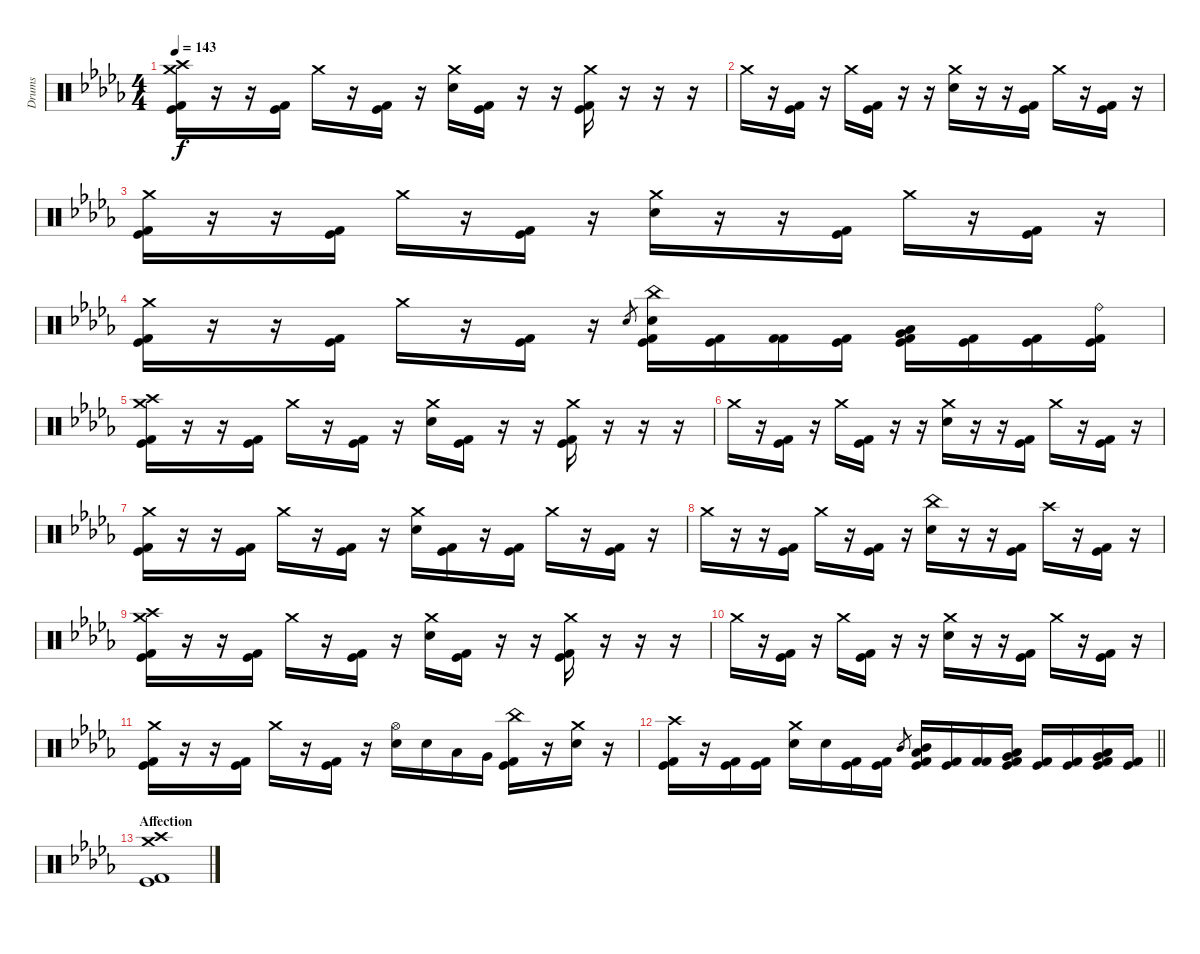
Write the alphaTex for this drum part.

\track ("Drums" "Drums") {instrument percussion}
\staff {score}
\articulation defaults
\ts (4 4)
\tempo 143
\clef neutral
\ks db
("Crash medium (hit)" "Crash high (hit)" "Kick (hit)" "Kick (hit) 2").16{dy f} r.16 r.16 ("Kick (hit)" "Kick (hit) 2").16 "Crash medium (hit)".16 r.16 ("Kick (hit)" "Kick (hit) 2").16 r.16 ("Crash medium (hit)" "Electric Snare (hit)").16 ("Kick (hit)" "Kick (hit) 2").16 r.16 r.16 ("Crash medium (hit)" "Kick (hit)" "Kick (hit) 2").16 r.16 r.16 r.16 |
"Crash medium (hit)".16 r.16 ("Kick (hit)" "Kick (hit) 2").16 r.16 "Crash medium (hit)".16 ("Kick (hit)" "Kick (hit) 2").16 r.16 r.16 ("Crash medium (hit)" "Electric Snare (hit)").16 r.16 r.16 ("Kick (hit)" "Kick (hit) 2").16 "Crash medium (hit)".16 r.16 ("Kick (hit)" "Kick (hit) 2").16 r.16 |
("Crash medium (hit)" "Kick (hit)" "Kick (hit) 2").16 r.16 r.16 ("Kick (hit)" "Kick (hit) 2").16 "Crash medium (hit)".16 r.16 ("Kick (hit)" "Kick (hit) 2").16 r.16 ("Crash medium (hit)" "Electric Snare (hit)").16 r.16 r.16 ("Kick (hit)" "Kick (hit) 2").16 "Crash medium (hit)".16 r.16 ("Kick (hit)" "Kick (hit) 2").16 r.16 |
("Crash medium (hit)" "Kick (hit)" "Kick (hit) 2").16 r.16 r.16 ("Kick (hit)" "Kick (hit) 2").16 "Crash medium (hit)".16 r.16 ("Kick (hit)" "Kick (hit) 2").16 r.16 "Electric Snare (hit)".8{gr} ("China (hit)" "Electric Snare (hit)" "Kick (hit)" "Kick (hit) 2").16 ("Kick (hit)" "Kick (hit) 2").16 ("Kick (hit) 2" "Kick (hit) 2").16 ("Kick (hit)" "Kick (hit) 2").16 ("Low Floor Tom (hit)" "Very Low Tom (hit)" "Kick (hit)" "Kick (hit) 2").16 ("Kick (hit)" "Kick (hit) 2").16 ("Kick (hit)" "Kick (hit) 2").16 ("Ride (bell)" "Kick (hit)" "Kick (hit) 2").16 |
("Crash medium (hit)" "Crash high (hit)" "Kick (hit)" "Kick (hit) 2").16 r.16 r.16 ("Kick (hit)" "Kick (hit) 2").16 "Crash medium (hit)".16 r.16 ("Kick (hit)" "Kick (hit) 2").16 r.16 ("Crash medium (hit)" "Electric Snare (hit)").16 ("Kick (hit)" "Kick (hit) 2").16 r.16 r.16 ("Crash medium (hit)" "Kick (hit)" "Kick (hit) 2").16 r.16 r.16 r.16 |
"Crash medium (hit)".16 r.16 ("Kick (hit)" "Kick (hit) 2").16 r.16 "Crash medium (hit)".16 ("Kick (hit)" "Kick (hit) 2").16 r.16 r.16 ("Crash medium (hit)" "Electric Snare (hit)").16 r.16 r.16 ("Kick (hit)" "Kick (hit) 2").16 "Crash medium (hit)".16 r.16 ("Kick (hit)" "Kick (hit) 2").16 r.16 |
("Crash medium (hit)" "Kick (hit)" "Kick (hit) 2").16 r.16 r.16 ("Kick (hit)" "Kick (hit) 2").16 "Crash medium (hit)".16 r.16 ("Kick (hit)" "Kick (hit) 2").16 r.16 ("Crash medium (hit)" "Electric Snare (hit)").16 ("Kick (hit)" "Kick (hit) 2").16 r.16 ("Kick (hit)" "Kick (hit) 2").16 "Crash medium (hit)".16 r.16 ("Kick (hit)" "Kick (hit) 2").16 r.16 |
"Crash medium (hit)".16 r.16 r.16 ("Kick (hit)" "Kick (hit) 2").16 "Crash medium (hit)".16 r.16 ("Kick (hit)" "Kick (hit) 2").16 r.16 ("China (hit)" "Electric Snare (hit)").16 r.16 r.16 ("Kick (hit)" "Kick (hit) 2").16 "Crash high (hit)".16 r.16 ("Kick (hit)" "Kick (hit) 2").16 r.16 |
("Crash medium (hit)" "Crash high (hit)" "Kick (hit)" "Kick (hit) 2").16 r.16 r.16 ("Kick (hit)" "Kick (hit) 2").16 "Crash medium (hit)".16 r.16 ("Kick (hit)" "Kick (hit) 2").16 r.16 ("Crash medium (hit)" "Electric Snare (hit)").16 ("Kick (hit)" "Kick (hit) 2").16 r.16 r.16 ("Crash medium (hit)" "Kick (hit)" "Kick (hit) 2").16 r.16 r.16 r.16 |
"Crash medium (hit)".16 r.16 ("Kick (hit)" "Kick (hit) 2").16 r.16 "Crash medium (hit)".16 ("Kick (hit)" "Kick (hit) 2").16 r.16 r.16 ("Crash medium (hit)" "Electric Snare (hit)").16 r.16 r.16 ("Kick (hit)" "Kick (hit) 2").16 "Crash medium (hit)".16 r.16 ("Kick (hit)" "Kick (hit) 2").16 r.16 |
("Crash medium (hit)" "Kick (hit)" "Kick (hit) 2").16 r.16 r.16 ("Kick (hit)" "Kick (hit) 2").16 "Crash medium (hit)".16 r.16 ("Kick (hit)" "Kick (hit) 2").16 r.16 ("Hi-Hat (open)" "Electric Snare (hit)").16 "Electric Snare (hit)".16 "Low Tom (hit)".16 "Very Low Tom (hit)".16 ("China (hit)" "Kick (hit)" "Kick (hit) 2").16 r.16 ("Crash medium (hit)" "Electric Snare (hit)").16 r.16 |
\barLineRight lightlight
("Crash high (hit)" "Kick (hit)" "Kick (hit) 2").16 r.16 ("Kick (hit)" "Kick (hit) 2").16 ("Kick (hit)" "Kick (hit) 2").16 ("Crash medium (hit)" "Electric Snare (hit)").16 "Electric Snare (hit)".16 ("Kick (hit)" "Kick (hit) 2").16 ("Kick (hit)" "Kick (hit) 2").16 "Mid Tom (hit)".8{gr} ("Mid Tom (hit)" "Low Tom (hit)" "Kick (hit)" "Kick (hit) 2").16 ("Kick (hit)" "Kick (hit) 2").16 ("Kick (hit) 2" "Kick (hit) 2").16 ("Low Tom (hit)" "Very Low Tom (hit)" "Kick (hit)" "Kick (hit) 2").16 ("Kick (hit)" "Kick (hit) 2").16 ("Kick (hit)" "Kick (hit) 2").16 ("Low Floor Tom (hit)" "Very Low Tom (hit)" "Kick (hit)" "Kick (hit) 2").16 ("Kick (hit)" "Kick (hit) 2").16 |
\section ("" "Affection")
("Crash medium (hit)" "Crash high (hit)" "Kick (hit)" "Kick (hit) 2").1
